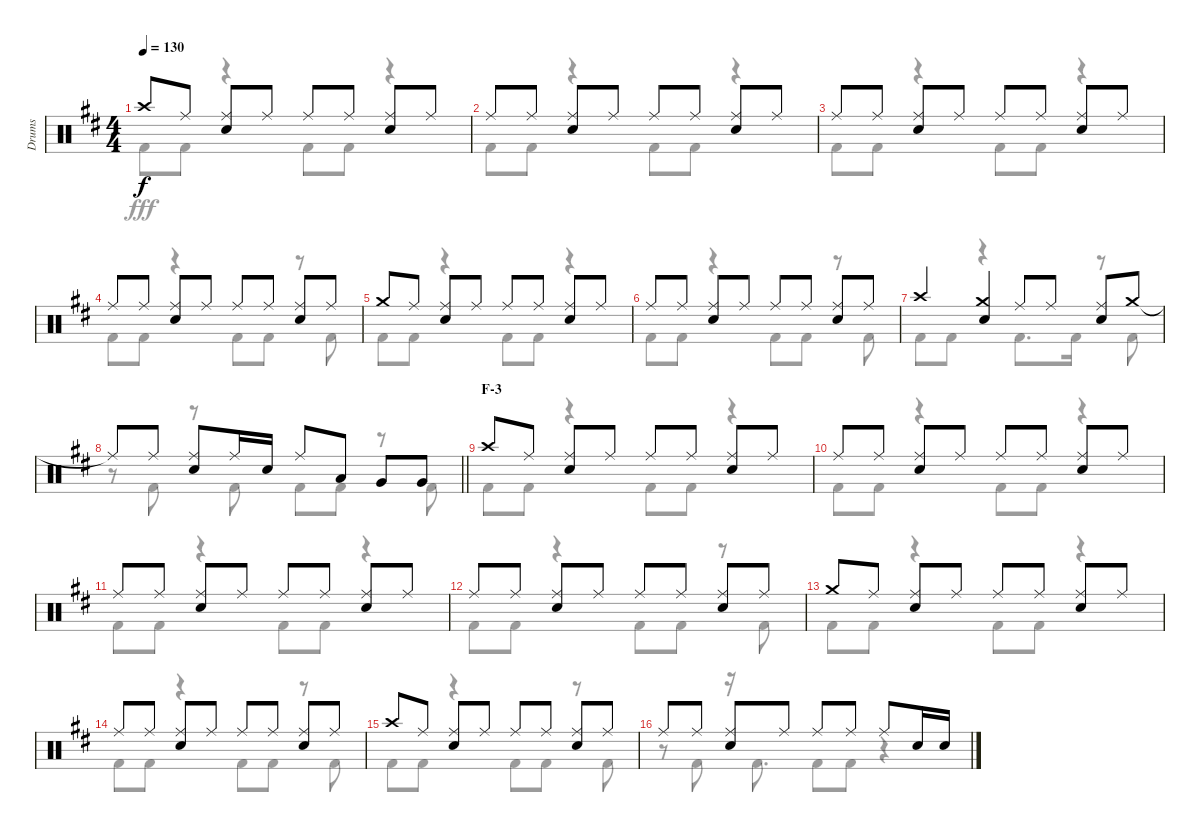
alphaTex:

\track ("Drums" "Drums") {instrument percussion}
\staff {score}
\articulation defaults
\voice
\ts (4 4)
\tempo 130
\clef neutral
\ks d "Crash high (hit)".8{dy f} "Ride (middle)".8
("Ride (middle)" "Snare (hit) 2").8 "Ride (middle)".8 "Ride (middle)".8 "Ride (middle)".8 ("Ride (middle)" "Snare (hit) 2").8 "Ride (middle)".8 |
"Ride (middle)".8 "Ride (middle)".8 ("Ride (middle)" "Snare (hit) 2").8 "Ride (middle)".8 "Ride (middle)".8 "Ride (middle)".8 ("Ride (middle)" "Snare (hit) 2").8 "Ride (middle)".8 |
"Ride (middle)".8 "Ride (middle)".8 ("Ride (middle)" "Snare (hit) 2").8 "Ride (middle)".8 "Ride (middle)".8 "Ride (middle)".8 ("Ride (middle)" "Snare (hit) 2").8 "Ride (middle)".8 |
"Ride (middle)".8 "Ride (middle)".8 ("Ride (middle)" "Snare (hit) 2").8 "Ride (middle)".8 "Ride (middle)".8 "Ride (middle)".8 ("Ride (middle)" "Snare (hit) 2").8 "Ride (middle)".8 |
"Crash medium (hit)".8 "Ride (middle)".8 ("Ride (middle)" "Snare (hit) 2").8 "Ride (middle)".8 "Ride (middle)".8 "Ride (middle)".8 ("Ride (middle)" "Snare (hit) 2").8 "Ride (middle)".8 |
"Ride (middle)".8 "Ride (middle)".8 ("Ride (middle)" "Snare (hit) 2").8 "Ride (middle)".8 "Ride (middle)".8 "Ride (middle)".8 ("Ride (middle)" "Snare (hit) 2").8 "Ride (middle)".8 |
"Crash high (hit)".4 ("Crash medium (hit)" "Snare (hit) 2").4 "Ride (middle)".8 "Ride (middle)".8 ("Ride (middle)" "Snare (hit) 2").8 "Crash medium (hit)".8 |
\barLineRight lightlight "Ride (middle)"{t}.8 "Ride (middle)".8
("Ride (middle)" "Snare (hit) 2").8 "Ride (middle)".16 "Snare (hit) 2".16 "Ride (middle)".8 "Low Tom (hit)".8 "Very Low Tom (hit)".8 "Very Low Tom (hit)".8 |
\section ("" "F-3")
"Crash high (hit)".8 "Ride (middle)".8 ("Ride (middle)" "Snare (hit) 2").8 "Ride (middle)".8 "Ride (middle)".8 "Ride (middle)".8 ("Ride (middle)" "Snare (hit) 2").8 "Ride (middle)".8 |
"Ride (middle)".8 "Ride (middle)".8 ("Ride (middle)" "Snare (hit) 2").8 "Ride (middle)".8 "Ride (middle)".8 "Ride (middle)".8 ("Ride (middle)" "Snare (hit) 2").8 "Ride (middle)".8 |
"Ride (middle)".8 "Ride (middle)".8 ("Ride (middle)" "Snare (hit) 2").8 "Ride (middle)".8 "Ride (middle)".8 "Ride (middle)".8 ("Ride (middle)" "Snare (hit) 2").8 "Ride (middle)".8 |
"Ride (middle)".8 "Ride (middle)".8 ("Ride (middle)" "Snare (hit) 2").8 "Ride (middle)".8 "Ride (middle)".8 "Ride (middle)".8 ("Ride (middle)" "Snare (hit) 2").8 "Ride (middle)".8 |
"Crash medium (hit)".8 "Ride (middle)".8 ("Ride (middle)" "Snare (hit) 2").8 "Ride (middle)".8 "Ride (middle)".8 "Ride (middle)".8 ("Ride (middle)" "Snare (hit) 2").8 "Ride (middle)".8 |
"Ride (middle)".8 "Ride (middle)".8 ("Ride (middle)" "Snare (hit) 2").8 "Ride (middle)".8 "Ride (middle)".8 "Ride (middle)".8 ("Ride (middle)" "Snare (hit) 2").8 "Ride (middle)".8 |
"Crash high (hit)".8 "Ride (middle)".8 ("Ride (middle)" "Snare (hit) 2").8 "Ride (middle)".8 "Ride (middle)".8 "Ride (middle)".8 ("Ride (middle)" "Snare (hit) 2").8 "Ride (middle)".8 |
"Ride (middle)".8 "Ride (middle)".8 ("Ride (middle)" "Snare (hit) 2").8 "Ride (middle)".8 "Ride (middle)".8 "Ride (middle)".8 "Ride (middle)".8 "Snare (hit) 2".16 "Snare (hit) 2".16
\voice
\clef neutral
\ottava regular
\simile none
\ks d "Kick (hit) 2".8{dy fff} "Kick (hit) 2".8
r.4 "Kick (hit) 2".8 "Kick (hit) 2".8 r.4 |
"Kick (hit) 2".8 "Kick (hit) 2".8 r.4 "Kick (hit) 2".8 "Kick (hit) 2".8 r.4 |
"Kick (hit) 2".8 "Kick (hit) 2".8 r.4 "Kick (hit) 2".8 "Kick (hit) 2".8 r.4 |
"Kick (hit) 2".8 "Kick (hit) 2".8 r.4 "Kick (hit) 2".8 "Kick (hit) 2".8 r.8 "Kick (hit) 2".8 |
"Kick (hit) 2".8 "Kick (hit) 2".8 r.4 "Kick (hit) 2".8 "Kick (hit) 2".8 r.4 |
"Kick (hit) 2".8 "Kick (hit) 2".8 r.4 "Kick (hit) 2".8 "Kick (hit) 2".8 r.8 "Kick (hit) 2".8 |
"Kick (hit) 2".8 "Kick (hit) 2".8 r.4 "Kick (hit) 2".8{d} "Kick (hit) 2".16 r.8 "Kick (hit) 2".8 |
\barLineRight lightlight
r.8 "Kick (hit) 2".8 r.8 "Kick (hit) 2".8 "Kick (hit) 2".8 "Kick (hit) 2".8 r.8 "Kick (hit) 2".8 |
"Kick (hit) 2".8 "Kick (hit) 2".8 r.4 "Kick (hit) 2".8 "Kick (hit) 2".8 r.4 |
"Kick (hit) 2".8 "Kick (hit) 2".8 r.4 "Kick (hit) 2".8 "Kick (hit) 2".8 r.4 |
"Kick (hit) 2".8 "Kick (hit) 2".8 r.4 "Kick (hit) 2".8 "Kick (hit) 2".8 r.4 |
"Kick (hit) 2".8 "Kick (hit) 2".8 r.4 "Kick (hit) 2".8 "Kick (hit) 2".8 r.8 "Kick (hit) 2".8 |
"Kick (hit) 2".8 "Kick (hit) 2".8 r.4 "Kick (hit) 2".8 "Kick (hit) 2".8 r.4 |
"Kick (hit) 2".8 "Kick (hit) 2".8 r.4 "Kick (hit) 2".8 "Kick (hit) 2".8 r.8 "Kick (hit) 2".8 |
"Kick (hit) 2".8 "Kick (hit) 2".8 r.4 "Kick (hit) 2".8 "Kick (hit) 2".8 r.8 "Kick (hit) 2".8 |
r.8 "Kick (hit) 2".8 r.16 "Kick (hit) 2".8{d} "Kick (hit) 2".8 "Kick (hit) 2".8 r.4
